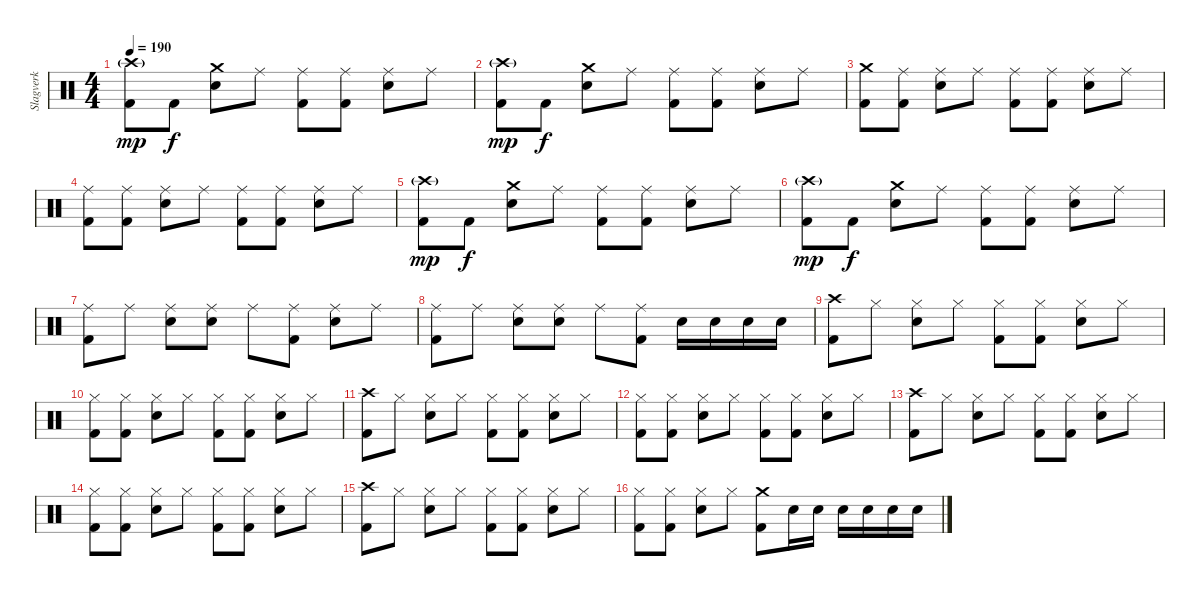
\track ("Slagverk" "Slagverk") {instrument percussion}
\staff {score}
\articulation defaults
\ts (4 4)
\tempo 190
\clef neutral
\ks c
("Kick (hit) 2" "Crash high (hit)"{g}).8{dy mp} "Kick (hit) 2".8{dy f} ("Electric Snare (hit)" "Crash medium (hit)").8 "Ride (middle)".8 ("Kick (hit) 2" "Ride (middle)").8 ("Kick (hit) 2" "Ride (middle)").8 ("Electric Snare (hit)" "Ride (middle)").8 "Ride (middle)".8 |
("Kick (hit) 2" "Crash high (hit)"{g}).8{dy mp} "Kick (hit) 2".8{dy f} ("Electric Snare (hit)" "Crash medium (hit)").8 "Ride (middle)".8 ("Kick (hit) 2" "Ride (middle)").8 ("Kick (hit) 2" "Ride (middle)").8 ("Electric Snare (hit)" "Ride (middle)").8 "Ride (middle)".8 |
("Kick (hit) 2" "Crash medium (hit)").8 ("Kick (hit) 2" "Ride (middle)").8 ("Electric Snare (hit)" "Ride (middle)").8 "Ride (middle)".8 ("Kick (hit) 2" "Ride (middle)").8 ("Kick (hit) 2" "Ride (middle)").8 ("Electric Snare (hit)" "Ride (middle)").8 "Ride (middle)".8 |
("Kick (hit) 2" "Ride (middle)").8 ("Kick (hit) 2" "Ride (middle)").8 ("Electric Snare (hit)" "Ride (middle)").8 "Ride (middle)".8 ("Kick (hit) 2" "Ride (middle)").8 ("Kick (hit) 2" "Ride (middle)").8 ("Electric Snare (hit)" "Ride (middle)").8 "Ride (middle)".8 |
("Kick (hit) 2" "Crash high (hit)"{g}).8{dy mp} "Kick (hit) 2".8{dy f} ("Electric Snare (hit)" "Crash medium (hit)").8 "Ride (middle)".8 ("Kick (hit) 2" "Ride (middle)").8 ("Kick (hit) 2" "Ride (middle)").8 ("Electric Snare (hit)" "Ride (middle)").8 "Ride (middle)".8 |
("Kick (hit) 2" "Crash high (hit)"{g}).8{dy mp} "Kick (hit) 2".8{dy f} ("Electric Snare (hit)" "Crash medium (hit)").8 "Ride (middle)".8 ("Kick (hit) 2" "Ride (middle)").8 ("Kick (hit) 2" "Ride (middle)").8 ("Electric Snare (hit)" "Ride (middle)").8 "Ride (middle)".8 |
("Kick (hit) 2" "Ride (middle)").8 "Ride (middle)".8 ("Electric Snare (hit)" "Ride (middle)").8 ("Electric Snare (hit)" "Ride (middle)").8 "Ride (middle)".8 ("Kick (hit) 2" "Ride (middle)").8 ("Electric Snare (hit)" "Ride (middle)").8 "Ride (middle)".8 |
("Kick (hit) 2" "Ride (middle)").8 "Ride (middle)".8 ("Electric Snare (hit)" "Ride (middle)").8 ("Electric Snare (hit)" "Ride (middle)").8 "Ride (middle)".8 ("Kick (hit) 2" "Ride (middle)").8 "Electric Snare (hit)".16 "Electric Snare (hit)".16 "Electric Snare (hit)".16 "Electric Snare (hit)".16 |
("Kick (hit) 2" "Crash high (hit)").8 "Hi-Hat (closed)".8 ("Electric Snare (hit)" "Hi-Hat (closed)").8 "Hi-Hat (closed)".8 ("Kick (hit) 2" "Hi-Hat (closed)").8 ("Kick (hit) 2" "Hi-Hat (closed)").8 ("Electric Snare (hit)" "Hi-Hat (closed)").8 "Hi-Hat (closed)".8 |
("Kick (hit) 2" "Hi-Hat (closed)").8 ("Kick (hit) 2" "Hi-Hat (closed)").8 ("Electric Snare (hit)" "Hi-Hat (closed)").8 "Hi-Hat (closed)".8 ("Kick (hit) 2" "Hi-Hat (closed)").8 ("Kick (hit) 2" "Hi-Hat (closed)").8 ("Electric Snare (hit)" "Hi-Hat (closed)").8 "Hi-Hat (closed)".8 |
("Kick (hit) 2" "Crash high (hit)").8 "Hi-Hat (closed)".8 ("Electric Snare (hit)" "Hi-Hat (closed)").8 "Hi-Hat (closed)".8 ("Kick (hit) 2" "Hi-Hat (closed)").8 ("Kick (hit) 2" "Hi-Hat (closed)").8 ("Electric Snare (hit)" "Hi-Hat (closed)").8 "Hi-Hat (closed)".8 |
("Kick (hit) 2" "Hi-Hat (closed)").8 ("Kick (hit) 2" "Hi-Hat (closed)").8 ("Electric Snare (hit)" "Hi-Hat (closed)").8 "Hi-Hat (closed)".8 ("Kick (hit) 2" "Hi-Hat (closed)").8 ("Kick (hit) 2" "Hi-Hat (closed)").8 ("Electric Snare (hit)" "Hi-Hat (closed)").8 "Hi-Hat (closed)".8 |
("Kick (hit) 2" "Crash high (hit)").8 "Hi-Hat (closed)".8 ("Electric Snare (hit)" "Hi-Hat (closed)").8 "Hi-Hat (closed)".8 ("Kick (hit) 2" "Hi-Hat (closed)").8 ("Kick (hit) 2" "Hi-Hat (closed)").8 ("Electric Snare (hit)" "Hi-Hat (closed)").8 "Hi-Hat (closed)".8 |
("Kick (hit) 2" "Hi-Hat (closed)").8 ("Kick (hit) 2" "Hi-Hat (closed)").8 ("Electric Snare (hit)" "Hi-Hat (closed)").8 "Hi-Hat (closed)".8 ("Kick (hit) 2" "Hi-Hat (closed)").8 ("Kick (hit) 2" "Hi-Hat (closed)").8 ("Electric Snare (hit)" "Hi-Hat (closed)").8 "Hi-Hat (closed)".8 |
("Kick (hit) 2" "Crash high (hit)").8 "Hi-Hat (closed)".8 ("Electric Snare (hit)" "Hi-Hat (closed)").8 "Hi-Hat (closed)".8 ("Kick (hit) 2" "Hi-Hat (closed)").8 ("Kick (hit) 2" "Hi-Hat (closed)").8 ("Electric Snare (hit)" "Hi-Hat (closed)").8 "Hi-Hat (closed)".8 |
("Kick (hit) 2" "Hi-Hat (closed)").8 ("Kick (hit) 2" "Hi-Hat (closed)").8 ("Electric Snare (hit)" "Hi-Hat (closed)").8 "Hi-Hat (closed)".8 ("Kick (hit) 2" "Crash medium (hit)").8 "Electric Snare (hit)".16 "Electric Snare (hit)".16 "Electric Snare (hit)".16 "Electric Snare (hit)".16 "Electric Snare (hit)".16 "Electric Snare (hit)".16
